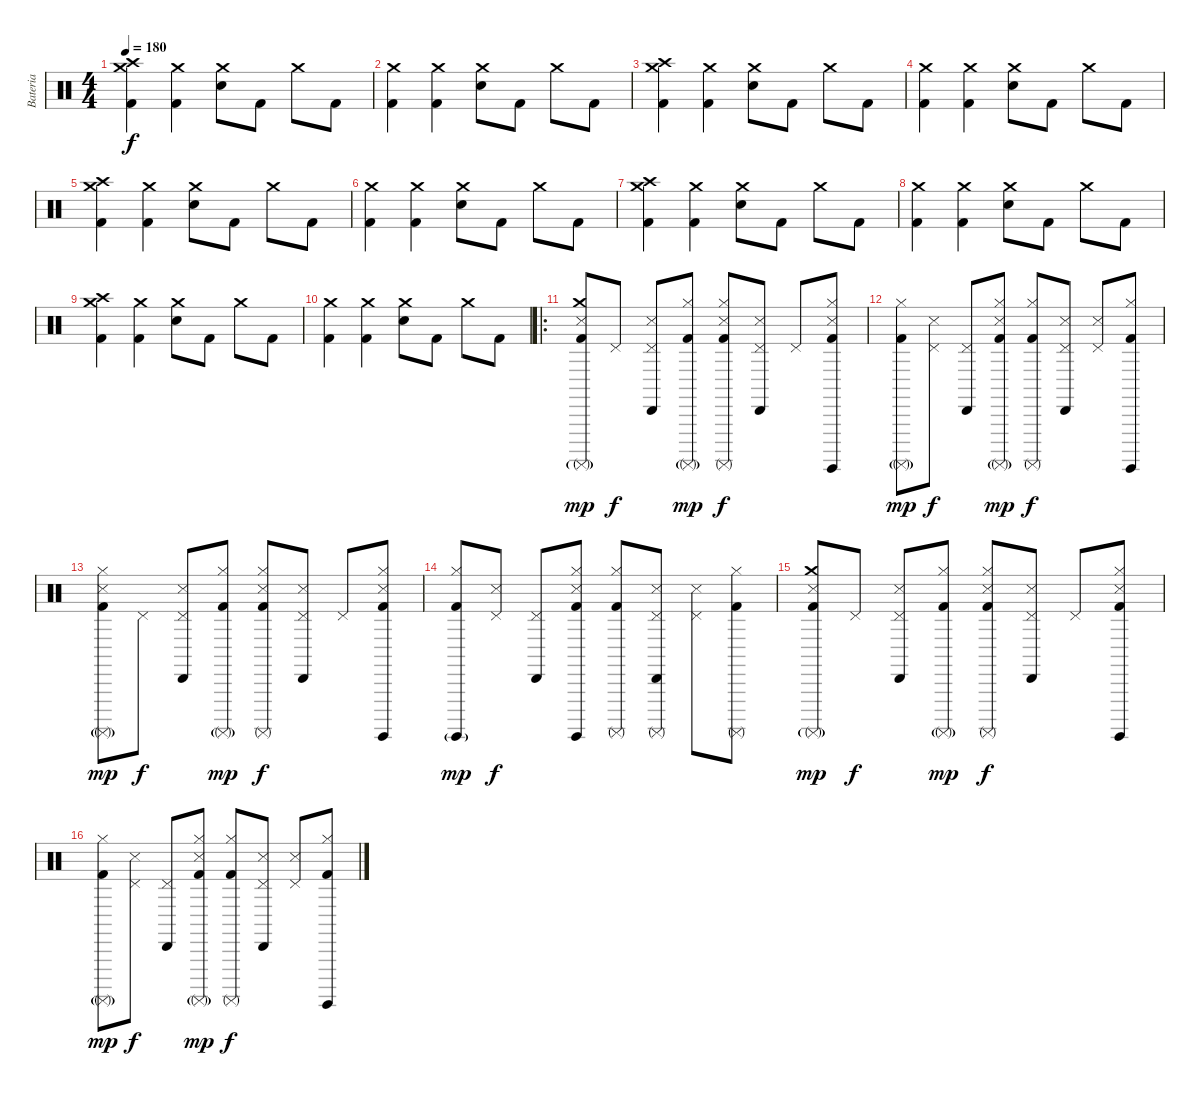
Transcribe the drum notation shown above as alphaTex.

\track ("Bateria" "Bateria") {instrument percussion}
\staff {score}
\articulation defaults
\ts (4 4)
\tempo 180
\clef neutral
\ks c
("Crash medium (hit)" "Crash high (hit)" "Kick (hit) 2").4{dy f} ("Crash medium (hit)" "Kick (hit) 2").4 ("Crash medium (hit)" "Electric Snare (hit)").8 "Kick (hit) 2".8 "Crash medium (hit)".8 "Kick (hit) 2".8 |
("Crash medium (hit)" "Kick (hit) 2").4 ("Crash medium (hit)" "Kick (hit) 2").4 ("Crash medium (hit)" "Electric Snare (hit)").8 "Kick (hit) 2".8 "Crash medium (hit)".8 "Kick (hit) 2".8 |
("Crash medium (hit)" "Crash high (hit)" "Kick (hit) 2").4 ("Crash medium (hit)" "Kick (hit) 2").4 ("Crash medium (hit)" "Electric Snare (hit)").8 "Kick (hit) 2".8 "Crash medium (hit)".8 "Kick (hit) 2".8 |
("Crash medium (hit)" "Kick (hit) 2").4 ("Crash medium (hit)" "Kick (hit) 2").4 ("Crash medium (hit)" "Electric Snare (hit)").8 "Kick (hit) 2".8 "Crash medium (hit)".8 "Kick (hit) 2".8 |
("Crash medium (hit)" "Crash high (hit)" "Kick (hit) 2").4 ("Crash medium (hit)" "Kick (hit) 2").4 ("Crash medium (hit)" "Electric Snare (hit)").8 "Kick (hit) 2".8 "Crash medium (hit)".8 "Kick (hit) 2".8 |
("Crash medium (hit)" "Kick (hit) 2").4 ("Crash medium (hit)" "Kick (hit) 2").4 ("Crash medium (hit)" "Electric Snare (hit)").8 "Kick (hit) 2".8 "Crash medium (hit)".8 "Kick (hit) 2".8 |
("Crash medium (hit)" "Crash high (hit)" "Kick (hit) 2").4 ("Crash medium (hit)" "Kick (hit) 2").4 ("Crash medium (hit)" "Electric Snare (hit)").8 "Kick (hit) 2".8 "Crash medium (hit)".8 "Kick (hit) 2".8 |
("Crash medium (hit)" "Kick (hit) 2").4 ("Crash medium (hit)" "Kick (hit) 2").4 ("Crash medium (hit)" "Electric Snare (hit)").8 "Kick (hit) 2".8 "Crash medium (hit)".8 "Kick (hit) 2".8 |
("Crash medium (hit)" "Crash high (hit)" "Kick (hit) 2").4 ("Crash medium (hit)" "Kick (hit) 2").4 ("Crash medium (hit)" "Electric Snare (hit)").8 "Kick (hit) 2".8 "Crash medium (hit)".8 "Kick (hit) 2".8 |
("Crash medium (hit)" "Kick (hit) 2").4 ("Crash medium (hit)" "Kick (hit) 2").4 ("Crash medium (hit)" "Electric Snare (hit)").8 "Kick (hit) 2".8 "Crash medium (hit)".8 "Kick (hit) 2".8 |
\ro
("Crash medium (hit)" "Snare (side stick) 3" "Surdo (mute)"{g} "Kick (hit) 2").8{dy mp} "Pedal Hi-Hat (hit)".8{dy f} ("Pedal Hi-Hat (hit)" "Cabasa (hit)" "Snare (side stick) 3").8 ("Hi-Hat (closed)" "Surdo (mute)"{g} "Kick (hit) 2").8{dy mp} ("Hi-Hat (closed)" "Snare (side stick) 3" "Surdo (mute)" "Kick (hit) 2").8{dy f} ("Pedal Hi-Hat (hit)" "Cabasa (hit)" "Snare (side stick) 3").8 "Pedal Hi-Hat (hit)".8 ("Hi-Hat (closed)" "Snare (side stick) 3" "Surdo (hit)" "Kick (hit) 2").8 |
("Hi-Hat (closed)" "Surdo (mute)"{g} "Kick (hit) 2").8{dy mp} ("Pedal Hi-Hat (hit)" "Snare (side stick) 3").8{dy f} ("Pedal Hi-Hat (hit)" "Cabasa (hit)").8 ("Hi-Hat (closed)" "Snare (side stick) 3" "Surdo (mute)"{g} "Kick (hit) 2").8{dy mp} ("Hi-Hat (closed)" "Surdo (mute)" "Kick (hit) 2").8{dy f} ("Pedal Hi-Hat (hit)" "Cabasa (hit)" "Snare (side stick) 3").8 ("Pedal Hi-Hat (hit)" "Snare (side stick) 3").8 ("Hi-Hat (closed)" "Surdo (hit)" "Kick (hit) 2").8 |
("Hi-Hat (closed)" "Snare (side stick) 3" "Surdo (mute)"{g} "Kick (hit) 2").8{dy mp} "Pedal Hi-Hat (hit)".8{dy f} ("Pedal Hi-Hat (hit)" "Cabasa (hit)" "Snare (side stick) 3").8 ("Hi-Hat (closed)" "Surdo (mute)"{g} "Kick (hit) 2").8{dy mp} ("Hi-Hat (closed)" "Snare (side stick) 3" "Surdo (mute)" "Kick (hit) 2").8{dy f} ("Pedal Hi-Hat (hit)" "Cabasa (hit)" "Snare (side stick) 3").8 "Pedal Hi-Hat (hit)".8 ("Hi-Hat (closed)" "Snare (side stick) 3" "Surdo (hit)" "Kick (hit) 2").8 |
("Hi-Hat (closed)" "Surdo (hit)"{g} "Kick (hit) 2").8{dy mp} ("Pedal Hi-Hat (hit)" "Snare (side stick) 3").8{dy f} ("Pedal Hi-Hat (hit)" "Cabasa (hit)").8 ("Hi-Hat (closed)" "Snare (side stick) 3" "Surdo (hit)" "Kick (hit) 2").8 ("Hi-Hat (closed)" "Surdo (mute)" "Kick (hit) 2").8 ("Pedal Hi-Hat (hit)" "Cabasa (hit)" "Snare (side stick) 3" "Surdo (mute)").8 ("Pedal Hi-Hat (hit)" "Snare (side stick) 3").8 ("Hi-Hat (closed)" "Surdo (mute)" "Kick (hit) 2").8 |
("Crash medium (hit)" "Snare (side stick) 3" "Surdo (mute)"{g} "Kick (hit) 2").8{dy mp} "Pedal Hi-Hat (hit)".8{dy f} ("Pedal Hi-Hat (hit)" "Cabasa (hit)" "Snare (side stick) 3").8 ("Hi-Hat (closed)" "Surdo (mute)"{g} "Kick (hit) 2").8{dy mp} ("Hi-Hat (closed)" "Snare (side stick) 3" "Surdo (mute)" "Kick (hit) 2").8{dy f} ("Pedal Hi-Hat (hit)" "Cabasa (hit)" "Snare (side stick) 3").8 "Pedal Hi-Hat (hit)".8 ("Hi-Hat (closed)" "Snare (side stick) 3" "Surdo (hit)" "Kick (hit) 2").8 |
("Hi-Hat (closed)" "Surdo (mute)"{g} "Kick (hit) 2").8{dy mp} ("Pedal Hi-Hat (hit)" "Snare (side stick) 3").8{dy f} ("Pedal Hi-Hat (hit)" "Cabasa (hit)").8 ("Hi-Hat (closed)" "Snare (side stick) 3" "Surdo (mute)"{g} "Kick (hit) 2").8{dy mp} ("Hi-Hat (closed)" "Surdo (mute)" "Kick (hit) 2").8{dy f} ("Pedal Hi-Hat (hit)" "Cabasa (hit)" "Snare (side stick) 3").8 ("Pedal Hi-Hat (hit)" "Snare (side stick) 3").8 ("Hi-Hat (closed)" "Surdo (hit)" "Kick (hit) 2").8
